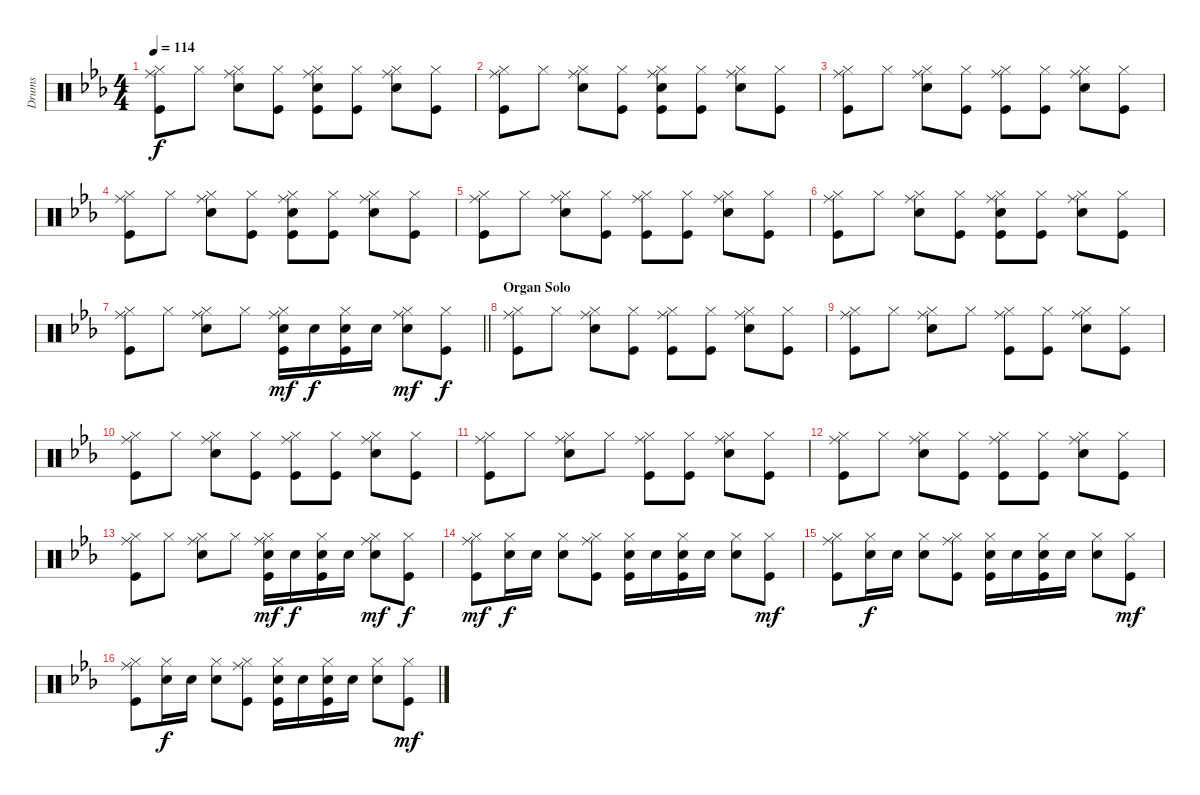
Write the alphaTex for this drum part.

\track ("Drums" "Drums") {instrument percussion}
\staff {score}
\articulation defaults
\ts (4 4)
\tempo 114
\clef neutral
\ks eb
("Hi-Hat (closed)" "Ride (middle)" "Kick (hit)").8{dy f} "Hi-Hat (closed)".8 ("Hi-Hat (closed)" "Ride (middle)" "Snare (hit) 2").8 ("Hi-Hat (closed)" "Kick (hit)").8 ("Hi-Hat (closed)" "Ride (middle)" "Snare (hit) 2" "Kick (hit)").8 ("Hi-Hat (closed)" "Kick (hit)").8 ("Hi-Hat (closed)" "Ride (middle)" "Snare (hit) 2").8 ("Hi-Hat (closed)" "Kick (hit)").8 |
("Hi-Hat (closed)" "Ride (middle)" "Kick (hit)").8 "Hi-Hat (closed)".8 ("Hi-Hat (closed)" "Ride (middle)" "Snare (hit) 2").8 ("Hi-Hat (closed)" "Kick (hit)").8 ("Hi-Hat (closed)" "Ride (middle)" "Snare (hit) 2" "Kick (hit)").8 ("Hi-Hat (closed)" "Kick (hit)").8 ("Hi-Hat (closed)" "Ride (middle)" "Snare (hit) 2").8 ("Hi-Hat (closed)" "Kick (hit)").8 |
("Hi-Hat (closed)" "Ride (middle)" "Kick (hit)").8 "Hi-Hat (closed)".8 ("Hi-Hat (closed)" "Ride (middle)" "Snare (hit) 2").8 ("Hi-Hat (closed)" "Kick (hit)").8 ("Hi-Hat (closed)" "Ride (middle)" "Kick (hit)").8 ("Hi-Hat (closed)" "Kick (hit)").8 ("Hi-Hat (closed)" "Ride (middle)" "Snare (hit) 2").8 ("Hi-Hat (closed)" "Kick (hit)").8 |
("Hi-Hat (closed)" "Ride (middle)" "Kick (hit)").8 "Hi-Hat (closed)".8 ("Hi-Hat (closed)" "Ride (middle)" "Snare (hit) 2").8 ("Hi-Hat (closed)" "Kick (hit)").8 ("Hi-Hat (closed)" "Ride (middle)" "Snare (hit) 2" "Kick (hit)").8 ("Hi-Hat (closed)" "Kick (hit)").8 ("Hi-Hat (closed)" "Ride (middle)" "Snare (hit) 2").8 ("Hi-Hat (closed)" "Kick (hit)").8 |
("Hi-Hat (closed)" "Ride (middle)" "Kick (hit)").8 "Hi-Hat (closed)".8 ("Hi-Hat (closed)" "Ride (middle)" "Snare (hit) 2").8 ("Hi-Hat (closed)" "Kick (hit)").8 ("Hi-Hat (closed)" "Ride (middle)" "Kick (hit)").8 ("Hi-Hat (closed)" "Kick (hit)").8 ("Hi-Hat (closed)" "Ride (middle)" "Snare (hit) 2").8 ("Hi-Hat (closed)" "Kick (hit)").8 |
("Hi-Hat (closed)" "Ride (middle)" "Kick (hit)").8 "Hi-Hat (closed)".8 ("Hi-Hat (closed)" "Ride (middle)" "Snare (hit) 2").8 ("Hi-Hat (closed)" "Kick (hit)").8 ("Hi-Hat (closed)" "Ride (middle)" "Snare (hit) 2" "Kick (hit)").8 ("Hi-Hat (closed)" "Kick (hit)").8 ("Hi-Hat (closed)" "Ride (middle)" "Snare (hit) 2").8 ("Hi-Hat (closed)" "Kick (hit)").8 |
\barLineRight lightlight
("Hi-Hat (closed)" "Ride (middle)" "Kick (hit)").8 "Hi-Hat (closed)".8 ("Hi-Hat (closed)" "Ride (middle)" "Snare (hit) 2").8 "Hi-Hat (closed)".8 ("Hi-Hat (closed)" "Ride (middle)" "Snare (hit) 2" "Kick (hit)").16{dy mf} "Snare (hit) 2".16{dy f} ("Hi-Hat (closed)" "Snare (hit) 2" "Kick (hit)").16 "Snare (hit) 2".16 ("Hi-Hat (closed)" "Ride (middle)" "Snare (hit) 2").8{dy mf} ("Hi-Hat (closed)" "Kick (hit)").8{dy f} |
\section ("" "Organ Solo")
("Hi-Hat (closed)" "Ride (middle)" "Kick (hit)").8 "Hi-Hat (closed)".8 ("Hi-Hat (closed)" "Ride (middle)" "Snare (hit) 2").8 ("Hi-Hat (closed)" "Kick (hit)").8 ("Hi-Hat (closed)" "Ride (middle)" "Kick (hit)").8 ("Hi-Hat (closed)" "Kick (hit)").8 ("Hi-Hat (closed)" "Ride (middle)" "Snare (hit) 2").8 ("Hi-Hat (closed)" "Kick (hit)").8 |
("Hi-Hat (closed)" "Ride (middle)" "Kick (hit)").8 "Hi-Hat (closed)".8 ("Hi-Hat (closed)" "Ride (middle)" "Snare (hit) 2").8 "Hi-Hat (closed)".8 ("Hi-Hat (closed)" "Ride (middle)" "Kick (hit)").8 ("Hi-Hat (closed)" "Kick (hit)").8 ("Hi-Hat (closed)" "Ride (middle)" "Snare (hit) 2").8 ("Hi-Hat (closed)" "Kick (hit)").8 |
("Hi-Hat (closed)" "Ride (middle)" "Kick (hit)").8 "Hi-Hat (closed)".8 ("Hi-Hat (closed)" "Ride (middle)" "Snare (hit) 2").8 ("Hi-Hat (closed)" "Kick (hit)").8 ("Hi-Hat (closed)" "Ride (middle)" "Kick (hit)").8 ("Hi-Hat (closed)" "Kick (hit)").8 ("Hi-Hat (closed)" "Ride (middle)" "Snare (hit) 2").8 ("Hi-Hat (closed)" "Kick (hit)").8 |
("Hi-Hat (closed)" "Ride (middle)" "Kick (hit)").8 "Hi-Hat (closed)".8 ("Hi-Hat (closed)" "Ride (middle)" "Snare (hit) 2").8 "Hi-Hat (closed)".8 ("Hi-Hat (closed)" "Ride (middle)" "Kick (hit)").8 ("Hi-Hat (closed)" "Kick (hit)").8 ("Hi-Hat (closed)" "Ride (middle)" "Snare (hit) 2").8 ("Hi-Hat (closed)" "Kick (hit)").8 |
("Hi-Hat (closed)" "Ride (middle)" "Kick (hit)").8 "Hi-Hat (closed)".8 ("Hi-Hat (closed)" "Ride (middle)" "Snare (hit) 2").8 ("Hi-Hat (closed)" "Kick (hit)").8 ("Hi-Hat (closed)" "Ride (middle)" "Kick (hit)").8 ("Hi-Hat (closed)" "Kick (hit)").8 ("Hi-Hat (closed)" "Ride (middle)" "Snare (hit) 2").8 ("Hi-Hat (closed)" "Kick (hit)").8 |
("Hi-Hat (closed)" "Ride (middle)" "Kick (hit)").8 "Hi-Hat (closed)".8 ("Hi-Hat (closed)" "Ride (middle)" "Snare (hit) 2").8 "Hi-Hat (closed)".8 ("Hi-Hat (closed)" "Ride (middle)" "Snare (hit) 2" "Kick (hit)").16{dy mf} "Snare (hit) 2".16{dy f} ("Hi-Hat (closed)" "Snare (hit) 2" "Kick (hit)").16 "Snare (hit) 2".16 ("Hi-Hat (closed)" "Ride (middle)" "Snare (hit) 2").8{dy mf} ("Hi-Hat (closed)" "Kick (hit)").8{dy f} |
("Hi-Hat (closed)" "Ride (middle)" "Kick (hit)").8{dy mf} ("Hi-Hat (closed)" "Snare (hit) 2").16{dy f} "Snare (hit) 2".16 ("Hi-Hat (closed)" "Snare (hit) 2").8 ("Hi-Hat (closed)" "Ride (middle)" "Kick (hit)").8 ("Hi-Hat (closed)" "Snare (hit) 2" "Kick (hit)").16 "Snare (hit) 2".16 ("Hi-Hat (closed)" "Snare (hit) 2" "Kick (hit)").16 "Snare (hit) 2".16 ("Hi-Hat (closed)" "Snare (hit) 2").8 ("Hi-Hat (closed)" "Kick (hit)").8{dy mf} |
("Hi-Hat (closed)" "Ride (middle)" "Kick (hit)").8 ("Hi-Hat (closed)" "Snare (hit) 2").16{dy f} "Snare (hit) 2".16 ("Hi-Hat (closed)" "Snare (hit) 2").8 ("Hi-Hat (closed)" "Ride (middle)" "Kick (hit)").8 ("Hi-Hat (closed)" "Snare (hit) 2" "Kick (hit)").16 "Snare (hit) 2".16 ("Hi-Hat (closed)" "Snare (hit) 2" "Kick (hit)").16 "Snare (hit) 2".16 ("Hi-Hat (closed)" "Snare (hit) 2").8 ("Hi-Hat (closed)" "Kick (hit)").8{dy mf} |
("Hi-Hat (closed)" "Ride (middle)" "Kick (hit)").8 ("Hi-Hat (closed)" "Snare (hit) 2").16{dy f} "Snare (hit) 2".16 ("Hi-Hat (closed)" "Snare (hit) 2").8 ("Hi-Hat (closed)" "Ride (middle)" "Kick (hit)").8 ("Hi-Hat (closed)" "Snare (hit) 2" "Kick (hit)").16 "Snare (hit) 2".16 ("Hi-Hat (closed)" "Snare (hit) 2" "Kick (hit)").16 "Snare (hit) 2".16 ("Hi-Hat (closed)" "Snare (hit) 2").8 ("Hi-Hat (closed)" "Kick (hit)").8{dy mf}
